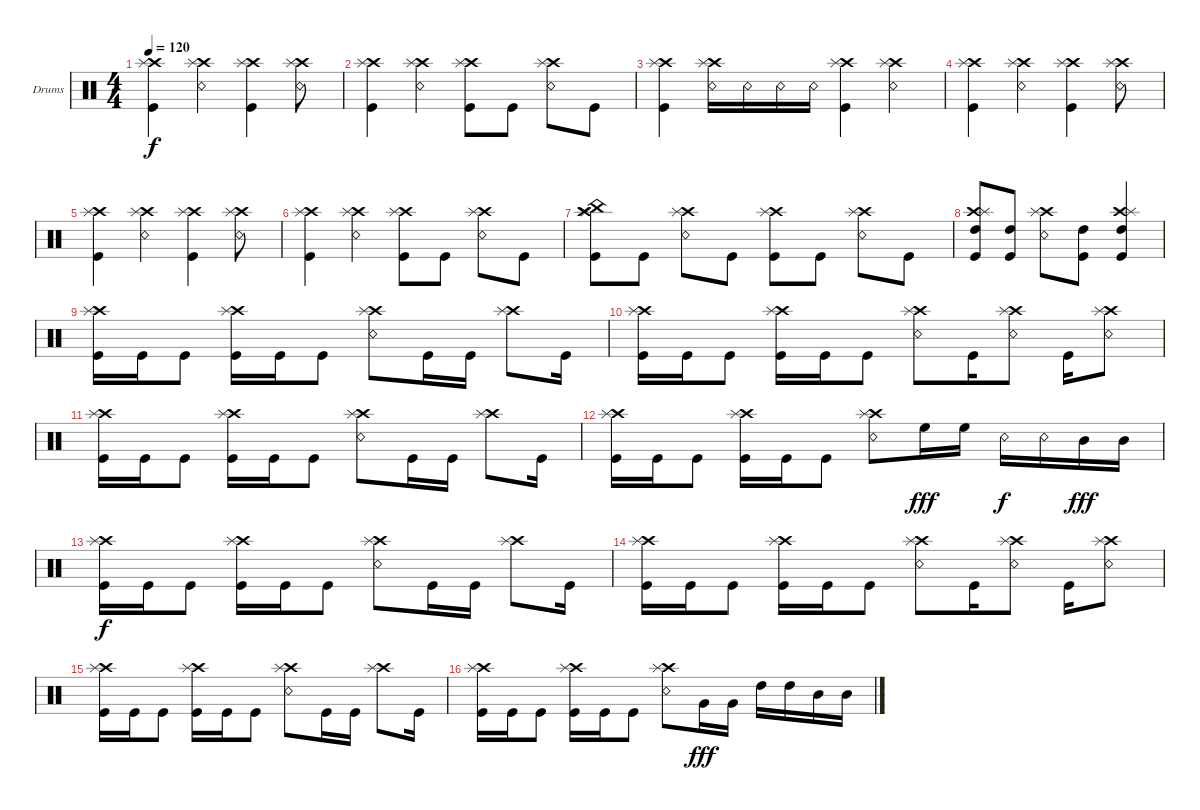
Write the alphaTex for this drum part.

\defaultSystemsLayout 4
\bracketExtendMode groupsimilarinstruments
\firstSystemTrackNameOrientation horizontal
\otherSystemsTrackNameOrientation horizontal
\track ("Drumkit" "Drums") {instrument percussion}
\staff {score}
\articulation defaults
\ts (4 4)
\tempo 120
\clef neutral
\scale
0.333333
\ks c
("Kick (hit)" "Crash high (hit)" "Splash (hit)").4{dy f} ("Snare (rim shot)" "Crash high (hit)" "Splash (hit)").4 ("Kick (hit)" "Crash high (hit)" "Splash (hit)").4 ("Snare (rim shot)" "Crash high (hit)" "Splash (hit)").8 |
\scale
0.333333 ("Kick (hit)" "Crash high (hit)" "Splash (hit)").4 ("Snare (rim shot)" "Crash high (hit)" "Splash (hit)").4 ("Kick (hit)" "Crash high (hit)" "Splash (hit)").8 "Kick (hit)".8 ("Snare (rim shot)" "Crash high (hit)" "Splash (hit)").8 "Kick (hit)".8 |
\scale
0.333333 ("Kick (hit)" "Crash high (hit)" "Splash (hit)").4 ("Snare (rim shot)" "Crash high (hit)" "Splash (hit)").16 "Snare (rim shot)".16 "Snare (rim shot)".16 "Snare (rim shot)".16 ("Kick (hit)" "Crash high (hit)" "Splash (hit)").4 ("Snare (rim shot)" "Crash high (hit)" "Splash (hit)").4 |
\scale
0.333333 ("Kick (hit)" "Crash high (hit)" "Splash (hit)").4 ("Snare (rim shot)" "Crash high (hit)" "Splash (hit)").4 ("Kick (hit)" "Crash high (hit)" "Splash (hit)").4 ("Snare (rim shot)" "Crash high (hit)" "Splash (hit)").8 |
\scale
0.333333 ("Kick (hit)" "Crash high (hit)" "Splash (hit)").4 ("Snare (rim shot)" "Crash high (hit)" "Splash (hit)").4 ("Kick (hit)" "Crash high (hit)" "Splash (hit)").4 ("Snare (rim shot)" "Crash high (hit)" "Splash (hit)").8 |
\scale
0.333333 ("Kick (hit)" "Crash high (hit)" "Splash (hit)").4 ("Snare (rim shot)" "Crash high (hit)" "Splash (hit)").4 ("Kick (hit)" "Crash high (hit)" "Splash (hit)").8 "Kick (hit)".8 ("Snare (rim shot)" "Crash high (hit)" "Splash (hit)").8 "Kick (hit)".8 |
\scale
0.333333 ("Kick (hit)" "Crash high (hit)" "Splash (hit)" "China (hit)").8 "Kick (hit)".8 ("Snare (rim shot)" "Crash high (hit)" "Splash (hit)").8 "Kick (hit)".8 ("Kick (hit)" "Crash high (hit)" "Splash (hit)").8 "Kick (hit)".8 ("Snare (rim shot)" "Crash high (hit)" "Splash (hit)").8 "Kick (hit)".8 |
\scale
0.333333 ("Kick (hit)" "Crash high (hit)" "Splash (hit)" "High Tom (hit)").8 ("Kick (hit)" "High Tom (hit)").8 ("Snare (rim shot)" "Crash high (hit)" "Splash (hit)").8 ("Kick (hit)" "High Tom (hit)").8 ("Kick (hit)" "Crash high (hit)" "Splash (hit)" "High Tom (hit)").4 |
\scale
0.333333 ("Kick (hit)" "Crash high (hit)" "Splash (hit)").16 "Kick (hit)".16 "Kick (hit)".8 ("Kick (hit)" "Crash high (hit)" "Splash (hit)").16 "Kick (hit)".16 "Kick (hit)".8 ("Snare (rim shot)" "Crash high (hit)" "Splash (hit)").8 "Kick (hit)".16 "Kick (hit)".16 ("Crash high (hit)" "Splash (hit)").8 "Kick (hit)".16 |
\scale
0.333333 ("Kick (hit)" "Crash high (hit)" "Splash (hit)").16 "Kick (hit)".16 "Kick (hit)".8 ("Kick (hit)" "Crash high (hit)" "Splash (hit)").16 "Kick (hit)".16 "Kick (hit)".8 ("Snare (rim shot)" "Crash high (hit)" "Splash (hit)").8 "Kick (hit)".16 ("Snare (rim shot)" "Crash high (hit)" "Splash (hit)").8 "Kick (hit)".16 ("Snare (rim shot)" "Crash high (hit)" "Splash (hit)").8 |
\scale
0.333333 ("Kick (hit)" "Crash high (hit)" "Splash (hit)").16 "Kick (hit)".16 "Kick (hit)".8 ("Kick (hit)" "Crash high (hit)" "Splash (hit)").16 "Kick (hit)".16 "Kick (hit)".8 ("Snare (rim shot)" "Crash high (hit)" "Splash (hit)").8 "Kick (hit)".16 "Kick (hit)".16 ("Crash high (hit)" "Splash (hit)").8 "Kick (hit)".16 |
\scale
0.333333 ("Kick (hit)" "Crash high (hit)" "Splash (hit)").16 "Kick (hit)".16 "Kick (hit)".8 ("Kick (hit)" "Crash high (hit)" "Splash (hit)").16 "Kick (hit)".16 "Kick (hit)".8 ("Snare (rim shot)" "Crash high (hit)" "Splash (hit)").8 "High Floor Tom (hit)".16{dy fff} "High Floor Tom (hit)".16 "Snare (rim shot)".16{dy f} "Snare (rim shot)".16 "Mid Tom (hit)".16{dy fff} "Mid Tom (hit)".16 |
\scale
0.333333 ("Kick (hit)" "Crash high (hit)" "Splash (hit)").16{dy f} "Kick (hit)".16 "Kick (hit)".8 ("Kick (hit)" "Crash high (hit)" "Splash (hit)").16 "Kick (hit)".16 "Kick (hit)".8 ("Snare (rim shot)" "Crash high (hit)" "Splash (hit)").8 "Kick (hit)".16 "Kick (hit)".16 ("Crash high (hit)" "Splash (hit)").8 "Kick (hit)".16 |
\scale
0.333333 ("Kick (hit)" "Crash high (hit)" "Splash (hit)").16 "Kick (hit)".16 "Kick (hit)".8 ("Kick (hit)" "Crash high (hit)" "Splash (hit)").16 "Kick (hit)".16 "Kick (hit)".8 ("Snare (rim shot)" "Crash high (hit)" "Splash (hit)").8 "Kick (hit)".16 ("Snare (rim shot)" "Crash high (hit)" "Splash (hit)").8 "Kick (hit)".16 ("Snare (rim shot)" "Crash high (hit)" "Splash (hit)").8 |
\scale
0.333333 ("Kick (hit)" "Crash high (hit)" "Splash (hit)").16 "Kick (hit)".16 "Kick (hit)".8 ("Kick (hit)" "Crash high (hit)" "Splash (hit)").16 "Kick (hit)".16 "Kick (hit)".8 ("Snare (rim shot)" "Crash high (hit)" "Splash (hit)").8 "Kick (hit)".16 "Kick (hit)".16 ("Crash high (hit)" "Splash (hit)").8 "Kick (hit)".16 |
\scale
0.333333 ("Kick (hit)" "Crash high (hit)" "Splash (hit)").16 "Kick (hit)".16 "Kick (hit)".8 ("Kick (hit)" "Crash high (hit)" "Splash (hit)").16 "Kick (hit)".16 "Kick (hit)".8 ("Snare (rim shot)" "Crash high (hit)" "Splash (hit)").8 "Very Low Tom (hit)".16{dy fff} "Very Low Tom (hit)".16 "High Tom (hit)".16 "High Tom (hit)".16 "Mid Tom (hit)".16 "Mid Tom (hit)".16
